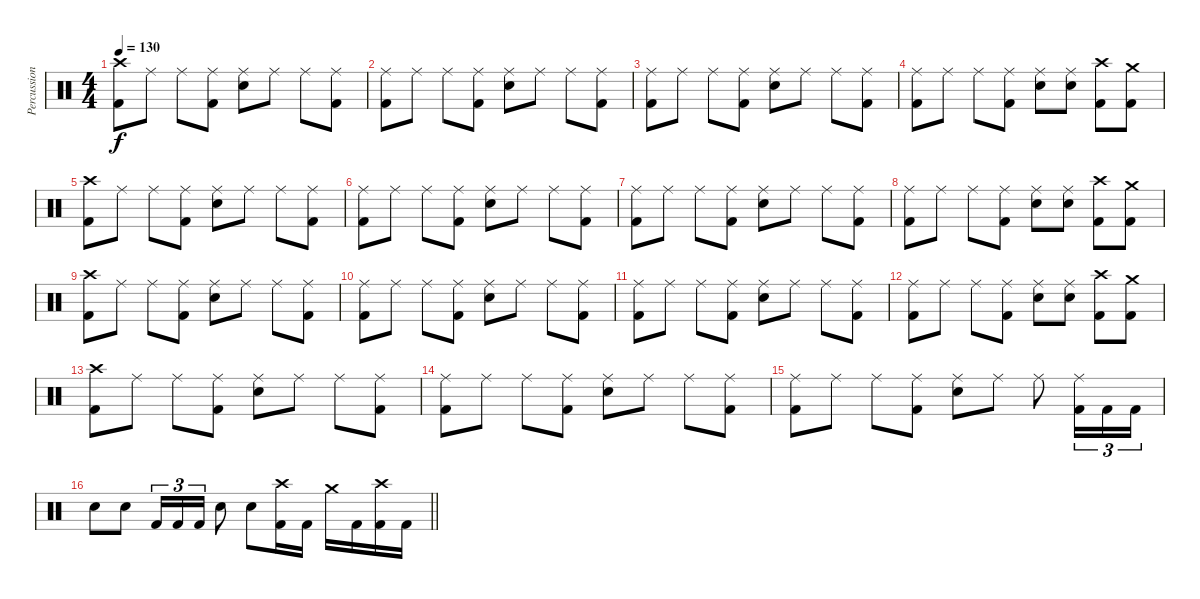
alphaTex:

\track ("Percussion" "Percussion") {instrument percussion}
\staff {score}
\articulation defaults
\ts (4 4)
\tempo 130
\clef neutral
\ks c
("Crash high (hit)" "Kick (hit) 2").8{dy f} "Ride (middle)".8 "Ride (middle)".8 ("Ride (middle)" "Kick (hit) 2").8 ("Ride (middle)" "Electric Snare (hit)").8 "Ride (middle)".8 "Ride (middle)".8 ("Ride (middle)" "Kick (hit) 2").8 |
("Ride (middle)" "Kick (hit) 2").8 "Ride (middle)".8 "Ride (middle)".8 ("Ride (middle)" "Kick (hit) 2").8 ("Ride (middle)" "Electric Snare (hit)").8 "Ride (middle)".8 "Ride (middle)".8 ("Ride (middle)" "Kick (hit) 2").8 |
("Ride (middle)" "Kick (hit) 2").8 "Ride (middle)".8 "Ride (middle)".8 ("Ride (middle)" "Kick (hit) 2").8 ("Ride (middle)" "Electric Snare (hit)").8 "Ride (middle)".8 "Ride (middle)".8 ("Ride (middle)" "Kick (hit) 2").8 |
("Ride (middle)" "Kick (hit) 2").8 "Ride (middle)".8 "Ride (middle)".8 ("Ride (middle)" "Kick (hit) 2").8 ("Ride (middle)" "Electric Snare (hit)").8 ("Ride (middle)" "Electric Snare (hit)").8 ("Crash high (hit)" "Kick (hit) 2").8 ("Crash medium (hit)" "Kick (hit) 2").8 |
("Crash high (hit)" "Kick (hit) 2").8 "Ride (middle)".8 "Ride (middle)".8 ("Ride (middle)" "Kick (hit) 2").8 ("Ride (middle)" "Electric Snare (hit)").8 "Ride (middle)".8 "Ride (middle)".8 ("Ride (middle)" "Kick (hit) 2").8 |
("Ride (middle)" "Kick (hit) 2").8 "Ride (middle)".8 "Ride (middle)".8 ("Ride (middle)" "Kick (hit) 2").8 ("Ride (middle)" "Electric Snare (hit)").8 "Ride (middle)".8 "Ride (middle)".8 ("Ride (middle)" "Kick (hit) 2").8 |
("Ride (middle)" "Kick (hit) 2").8 "Ride (middle)".8 "Ride (middle)".8 ("Ride (middle)" "Kick (hit) 2").8 ("Ride (middle)" "Electric Snare (hit)").8 "Ride (middle)".8 "Ride (middle)".8 ("Ride (middle)" "Kick (hit) 2").8 |
("Ride (middle)" "Kick (hit) 2").8 "Ride (middle)".8 "Ride (middle)".8 ("Ride (middle)" "Kick (hit) 2").8 ("Ride (middle)" "Electric Snare (hit)").8 ("Ride (middle)" "Electric Snare (hit)").8 ("Crash high (hit)" "Kick (hit) 2").8 ("Crash medium (hit)" "Kick (hit) 2").8 |
("Crash high (hit)" "Kick (hit) 2").8 "Ride (middle)".8 "Ride (middle)".8 ("Ride (middle)" "Kick (hit) 2").8 ("Ride (middle)" "Electric Snare (hit)").8 "Ride (middle)".8 "Ride (middle)".8 ("Ride (middle)" "Kick (hit) 2").8 |
("Ride (middle)" "Kick (hit) 2").8 "Ride (middle)".8 "Ride (middle)".8 ("Ride (middle)" "Kick (hit) 2").8 ("Ride (middle)" "Electric Snare (hit)").8 "Ride (middle)".8 "Ride (middle)".8 ("Ride (middle)" "Kick (hit) 2").8 |
("Ride (middle)" "Kick (hit) 2").8 "Ride (middle)".8 "Ride (middle)".8 ("Ride (middle)" "Kick (hit) 2").8 ("Ride (middle)" "Electric Snare (hit)").8 "Ride (middle)".8 "Ride (middle)".8 ("Ride (middle)" "Kick (hit) 2").8 |
("Ride (middle)" "Kick (hit) 2").8 "Ride (middle)".8 "Ride (middle)".8 ("Ride (middle)" "Kick (hit) 2").8 ("Ride (middle)" "Electric Snare (hit)").8 ("Ride (middle)" "Electric Snare (hit)").8 ("Crash high (hit)" "Kick (hit) 2").8 ("Crash medium (hit)" "Kick (hit) 2").8 |
("Crash high (hit)" "Kick (hit) 2").8 "Ride (middle)".8 "Ride (middle)".8 ("Ride (middle)" "Kick (hit) 2").8 ("Ride (middle)" "Electric Snare (hit)").8 "Ride (middle)".8 "Ride (middle)".8 ("Ride (middle)" "Kick (hit) 2").8 |
("Ride (middle)" "Kick (hit) 2").8 "Ride (middle)".8 "Ride (middle)".8 ("Ride (middle)" "Kick (hit) 2").8 ("Ride (middle)" "Electric Snare (hit)").8 "Ride (middle)".8 "Ride (middle)".8 ("Ride (middle)" "Kick (hit) 2").8 |
("Ride (middle)" "Kick (hit) 2").8 "Ride (middle)".8 "Ride (middle)".8 ("Ride (middle)" "Kick (hit) 2").8 ("Ride (middle)" "Electric Snare (hit)").8 "Ride (middle)".8 "Ride (middle)".8 ("Ride (middle)" "Kick (hit) 2").16{tu (3 2)} "Kick (hit) 2".16{tu (3 2)} "Kick (hit) 2".16{tu (3 2)} |
\barLineRight lightlight "Electric Snare (hit)".8 "Electric Snare (hit)".8 "Kick (hit) 2".16{tu (3 2)} "Kick (hit) 2".16{tu (3 2)} "Kick (hit) 2".16{tu (3 2)} "Electric Snare (hit)".8 "Electric Snare (hit)".8
("Crash high (hit)" "Kick (hit) 2").16 "Kick (hit) 2".16 "Crash medium (hit)".16 "Kick (hit) 2".16 ("Crash high (hit)" "Kick (hit) 2").16 "Kick (hit) 2".16
